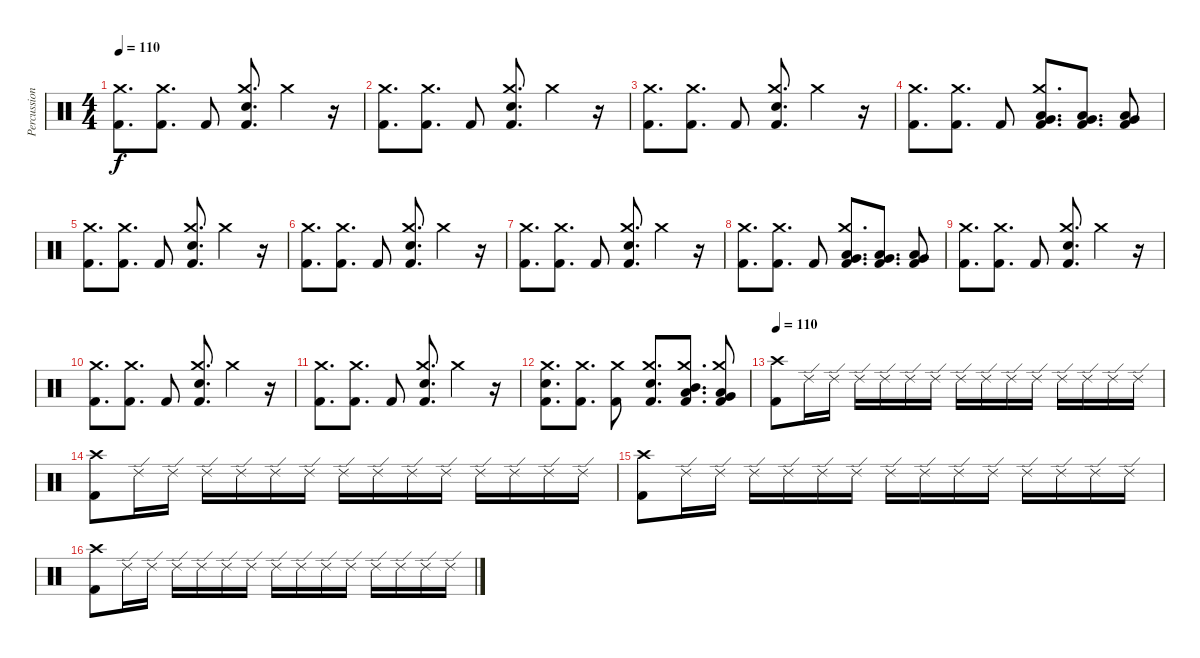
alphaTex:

\track ("Percussion" "Percussion") {instrument percussion}
\staff {score}
\articulation defaults
\ts (4 4)
\tempo 110
\clef neutral
\ks c
("Kick (hit) 2" "Crash medium (hit)").8{d dy f} ("Kick (hit) 2" "Crash medium (hit)").8{d} "Kick (hit) 2".8 ("Snare (hit) 2" "Kick (hit) 2" "Crash medium (hit)").8{d} "Crash medium (hit)".4 r.16 |
("Kick (hit) 2" "Crash medium (hit)").8{d} ("Kick (hit) 2" "Crash medium (hit)").8{d} "Kick (hit) 2".8 ("Snare (hit) 2" "Kick (hit) 2" "Crash medium (hit)").8{d} "Crash medium (hit)".4 r.16 |
("Kick (hit) 2" "Crash medium (hit)").8{d} ("Kick (hit) 2" "Crash medium (hit)").8{d} "Kick (hit) 2".8 ("Snare (hit) 2" "Kick (hit) 2" "Crash medium (hit)").8{d} "Crash medium (hit)".4 r.16 |
("Kick (hit) 2" "Crash medium (hit)").8{d} ("Kick (hit) 2" "Crash medium (hit)").8{d} "Kick (hit) 2".8 ("Kick (hit) 2" "Crash medium (hit)" "Very Low Tom (hit)" "Low Floor Tom (hit)").8{d} ("Kick (hit) 2" "Very Low Tom (hit)" "Low Floor Tom (hit)").8{d} ("Kick (hit) 2" "Very Low Tom (hit)" "Low Floor Tom (hit)").8 |
("Kick (hit) 2" "Crash medium (hit)").8{d} ("Kick (hit) 2" "Crash medium (hit)").8{d} "Kick (hit) 2".8 ("Snare (hit) 2" "Kick (hit) 2" "Crash medium (hit)").8{d} "Crash medium (hit)".4 r.16 |
("Kick (hit) 2" "Crash medium (hit)").8{d} ("Kick (hit) 2" "Crash medium (hit)").8{d} "Kick (hit) 2".8 ("Snare (hit) 2" "Kick (hit) 2" "Crash medium (hit)").8{d} "Crash medium (hit)".4 r.16 |
("Kick (hit) 2" "Crash medium (hit)").8{d} ("Kick (hit) 2" "Crash medium (hit)").8{d} "Kick (hit) 2".8 ("Snare (hit) 2" "Kick (hit) 2" "Crash medium (hit)").8{d} "Crash medium (hit)".4 r.16 |
("Kick (hit) 2" "Crash medium (hit)").8{d} ("Kick (hit) 2" "Crash medium (hit)").8{d} "Kick (hit) 2".8 ("Kick (hit) 2" "Crash medium (hit)" "Very Low Tom (hit)" "Low Floor Tom (hit)").8{d} ("Kick (hit) 2" "Very Low Tom (hit)" "Low Floor Tom (hit)").8{d} ("Kick (hit) 2" "Very Low Tom (hit)" "Low Floor Tom (hit)").8 |
("Kick (hit) 2" "Crash medium (hit)").8{d} ("Kick (hit) 2" "Crash medium (hit)").8{d} "Kick (hit) 2".8 ("Snare (hit) 2" "Kick (hit) 2" "Crash medium (hit)").8{d} "Crash medium (hit)".4 r.16 |
("Kick (hit) 2" "Crash medium (hit)").8{d} ("Kick (hit) 2" "Crash medium (hit)").8{d} "Kick (hit) 2".8 ("Snare (hit) 2" "Kick (hit) 2" "Crash medium (hit)").8{d} "Crash medium (hit)".4 r.16 |
("Kick (hit) 2" "Crash medium (hit)").8{d} ("Kick (hit) 2" "Crash medium (hit)").8{d} "Kick (hit) 2".8 ("Snare (hit) 2" "Kick (hit) 2" "Crash medium (hit)").8{d} "Crash medium (hit)".4 r.16 |
("Snare (hit) 2" "Kick (hit) 2" "Crash medium (hit)").8{d} ("Kick (hit) 2" "Crash medium (hit)").8{d} ("Kick (hit) 2" "Crash medium (hit)").8 ("Snare (hit) 2" "Kick (hit) 2" "Crash medium (hit)").8{d} ("Kick (hit) 2" "Crash medium (hit)" "Mid Tom (hit)" "Low Tom (hit)").8{d} ("Kick (hit) 2" "Crash medium (hit)" "Low Tom (hit)" "Very Low Tom (hit)").8 |
\tempo 110
("Kick (hit) 2" "Crash high (hit)").8 "Ride (edge) 2".16 "Ride (edge) 2".16 "Ride (edge) 2".16 "Ride (edge) 2".16 "Ride (edge) 2".16 "Ride (edge) 2".16 "Ride (edge) 2".16 "Ride (edge) 2".16 "Ride (edge) 2".16 "Ride (edge) 2".16 "Ride (edge) 2".16 "Ride (edge) 2".16 "Ride (edge) 2".16 "Ride (edge) 2".16 |
("Kick (hit) 2" "Crash high (hit)").8 "Ride (edge) 2".16 "Ride (edge) 2".16 "Ride (edge) 2".16 "Ride (edge) 2".16 "Ride (edge) 2".16 "Ride (edge) 2".16 "Ride (edge) 2".16 "Ride (edge) 2".16 "Ride (edge) 2".16 "Ride (edge) 2".16 "Ride (edge) 2".16 "Ride (edge) 2".16 "Ride (edge) 2".16 "Ride (edge) 2".16 |
("Kick (hit) 2" "Crash high (hit)").8 "Ride (edge) 2".16 "Ride (edge) 2".16 "Ride (edge) 2".16 "Ride (edge) 2".16 "Ride (edge) 2".16 "Ride (edge) 2".16 "Ride (edge) 2".16 "Ride (edge) 2".16 "Ride (edge) 2".16 "Ride (edge) 2".16 "Ride (edge) 2".16 "Ride (edge) 2".16 "Ride (edge) 2".16 "Ride (edge) 2".16 |
("Kick (hit) 2" "Crash high (hit)").8 "Ride (edge) 2".16 "Ride (edge) 2".16 "Ride (edge) 2".16 "Ride (edge) 2".16 "Ride (edge) 2".16 "Ride (edge) 2".16 "Ride (edge) 2".16 "Ride (edge) 2".16 "Ride (edge) 2".16 "Ride (edge) 2".16 "Ride (edge) 2".16 "Ride (edge) 2".16 "Ride (edge) 2".16 "Ride (edge) 2".16
